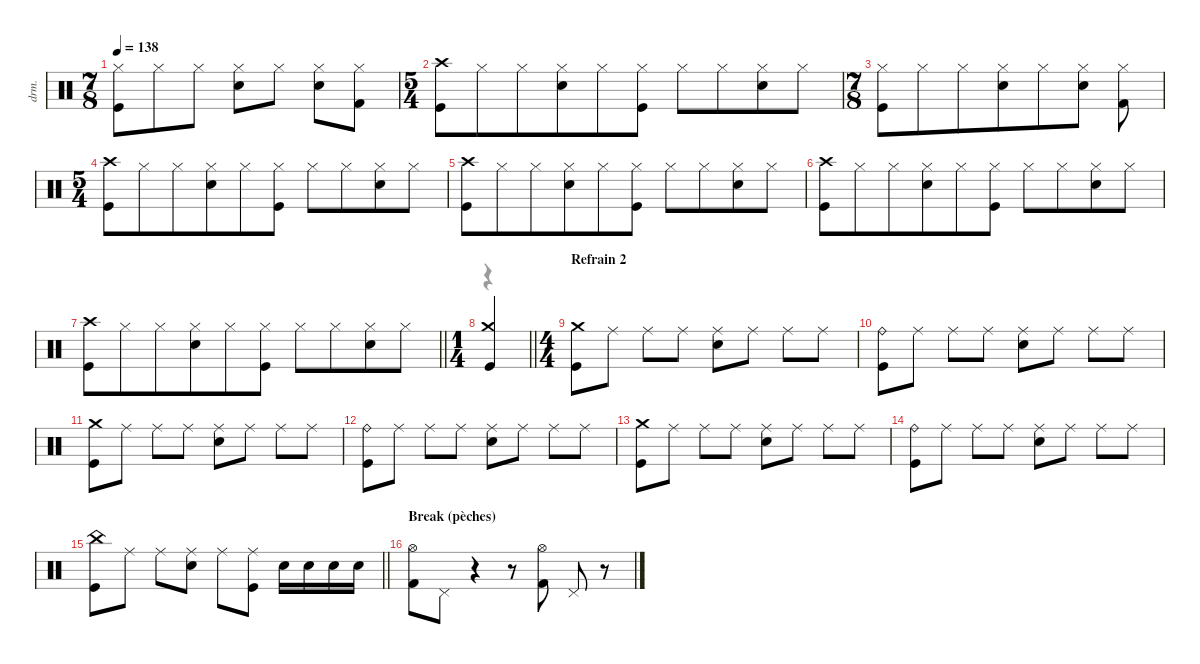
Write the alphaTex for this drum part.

\defaultSystemsLayout 4
\hideDynamics
\bracketExtendMode nobrackets
\track ("Percussions" "drm.") {instrument percussion}
\staff {score}
\articulation defaults
\voice
\ts (7 8)
\beaming (8 3 2 2)
\tempo 138
\clef neutral
\ks aminor
("Hi-Hat (closed)" "Kick (hit)").8{dy f} "Hi-Hat (closed)".8 "Hi-Hat (closed)".8 ("Hi-Hat (closed)" "Snare (hit) 2").8 "Hi-Hat (closed)".8 ("Hi-Hat (closed)" "Snare (hit) 2").8 ("Hi-Hat (closed)" "Kick (hit) 2").8 |
\ts (5 4)
\beaming (8 6 4)
("Crash high (hit)" "Kick (hit)").8 "Hi-Hat (closed)".8 "Hi-Hat (closed)".8 ("Hi-Hat (closed)" "Snare (hit) 2").8 "Hi-Hat (closed)".8 ("Hi-Hat (closed)" "Kick (hit)").8 "Hi-Hat (closed)".8 "Hi-Hat (closed)".8 ("Hi-Hat (closed)" "Snare (hit) 2").8 "Hi-Hat (closed)".8 |
\ts (7 8)
\beaming (8 6 4)
("Hi-Hat (closed)" "Kick (hit)").8 "Hi-Hat (closed)".8 "Hi-Hat (closed)".8 ("Hi-Hat (closed)" "Snare (hit) 2").8 "Hi-Hat (closed)".8 ("Hi-Hat (closed)" "Snare (hit) 2").8 ("Hi-Hat (closed)" "Kick (hit) 2").8 |
\ts (5 4)
\beaming (8 6 4)
("Crash high (hit)" "Kick (hit)").8 "Hi-Hat (closed)".8 "Hi-Hat (closed)".8 ("Hi-Hat (closed)" "Snare (hit) 2").8 "Hi-Hat (closed)".8 ("Hi-Hat (closed)" "Kick (hit)").8 "Hi-Hat (closed)".8 "Hi-Hat (closed)".8 ("Hi-Hat (closed)" "Snare (hit) 2").8 "Hi-Hat (closed)".8 |
("Crash high (hit)" "Kick (hit)").8 "Hi-Hat (closed)".8 "Hi-Hat (closed)".8 ("Hi-Hat (closed)" "Snare (hit) 2").8 "Hi-Hat (closed)".8 ("Hi-Hat (closed)" "Kick (hit)").8 "Hi-Hat (closed)".8 "Hi-Hat (closed)".8 ("Hi-Hat (closed)" "Snare (hit) 2").8 "Hi-Hat (closed)".8 |
("Crash high (hit)" "Kick (hit)").8 "Hi-Hat (closed)".8 "Hi-Hat (closed)".8 ("Hi-Hat (closed)" "Snare (hit) 2").8 "Hi-Hat (closed)".8 ("Hi-Hat (closed)" "Kick (hit)").8 "Hi-Hat (closed)".8 "Hi-Hat (closed)".8 ("Hi-Hat (closed)" "Snare (hit) 2").8 "Hi-Hat (closed)".8 |
\barLineRight lightlight
("Crash high (hit)" "Kick (hit)").8 "Hi-Hat (closed)".8 "Hi-Hat (closed)".8 ("Hi-Hat (closed)" "Snare (hit) 2").8 "Hi-Hat (closed)".8 ("Hi-Hat (closed)" "Kick (hit)").8 "Hi-Hat (closed)".8 "Hi-Hat (closed)".8 ("Hi-Hat (closed)" "Snare (hit) 2").8 "Hi-Hat (closed)".8 |
\ts (1 4)
\beaming (8 2)
\barLineRight lightlight
("Kick (hit)" "Crash medium (hit)").4 |
\ts (4 4)
\beaming (8 2 2 2 2)
\section ("" "Refrain 2")
("Crash medium (hit)" "Kick (hit)").8 "Ride (middle)".8{dy mf} "Ride (middle)".8{dy f} "Ride (middle)".8{dy mf} ("Ride (middle)" "Snare (hit) 2").8{dy f} "Ride (middle)".8{dy mf} "Ride (middle)".8{dy f} "Ride (middle)".8{dy mf} |
("Ride (bell)" "Kick (hit)").8{dy f} "Ride (middle)".8{dy mf} "Ride (middle)".8{dy f} "Ride (middle)".8{dy mf} ("Ride (middle)" "Snare (hit) 2").8{dy f} "Ride (middle)".8{dy mf} "Ride (middle)".8{dy f} "Ride (middle)".8{dy mf} |
("Crash medium (hit)" "Kick (hit)").8{dy f} "Ride (middle)".8{dy mf} "Ride (middle)".8{dy f} "Ride (middle)".8{dy mf} ("Ride (middle)" "Snare (hit) 2").8{dy f} "Ride (middle)".8{dy mf} "Ride (middle)".8{dy f} "Ride (middle)".8{dy mf} |
("Ride (bell)" "Kick (hit)").8{dy f} "Ride (middle)".8{dy mf} "Ride (middle)".8{dy f} "Ride (middle)".8{dy mf} ("Ride (middle)" "Snare (hit) 2").8{dy f} "Ride (middle)".8{dy mf} "Ride (middle)".8{dy f} "Ride (middle)".8{dy mf} |
("Crash medium (hit)" "Kick (hit)").8{dy f} "Ride (middle)".8{dy mf} "Ride (middle)".8{dy f} "Ride (middle)".8{dy mf} ("Ride (middle)" "Snare (hit) 2").8{dy f} "Ride (middle)".8{dy mf} "Ride (middle)".8{dy f} "Ride (middle)".8{dy mf} |
("Ride (bell)" "Kick (hit)").8{dy f} "Ride (middle)".8{dy mf} "Ride (middle)".8{dy f} "Ride (middle)".8{dy mf} ("Ride (middle)" "Snare (hit) 2").8{dy f} "Ride (middle)".8{dy mf} "Ride (middle)".8{dy f} "Ride (middle)".8{dy mf} |
\barLineRight lightlight
("China (hit)" "Kick (hit)").8{dy mp} "Ride (middle)".8{dy mf} "Ride (middle)".8 ("Ride (middle)" "Snare (hit) 2").8{dy f} "Ride (middle)".8{dy mf} ("Ride (middle)" "Kick (hit)").8 "Snare (hit) 2".16{dy mp} "Snare (hit) 2".16{dy mf} "Snare (hit) 2".16 "Snare (hit) 2".16{dy f} |
\section ("" "Break (pèches)")
("Kick (hit) 2" "Hi-Hat (open)").8 "Pedal Hi-Hat (hit)".8{dy ppp} r.4 r.8 ("Kick (hit) 2" "Hi-Hat (open)").8{dy f} "Pedal Hi-Hat (hit)".8 r.8
\voice
\clef neutral
\ottava regular
\simile none
\ks aminor
|
|
|
|
|
|
\barLineRight lightlight
|
\barLineRight lightlight
r.4{dy mf} |
|
|
|
|
|
|
\barLineRight lightlight
|
